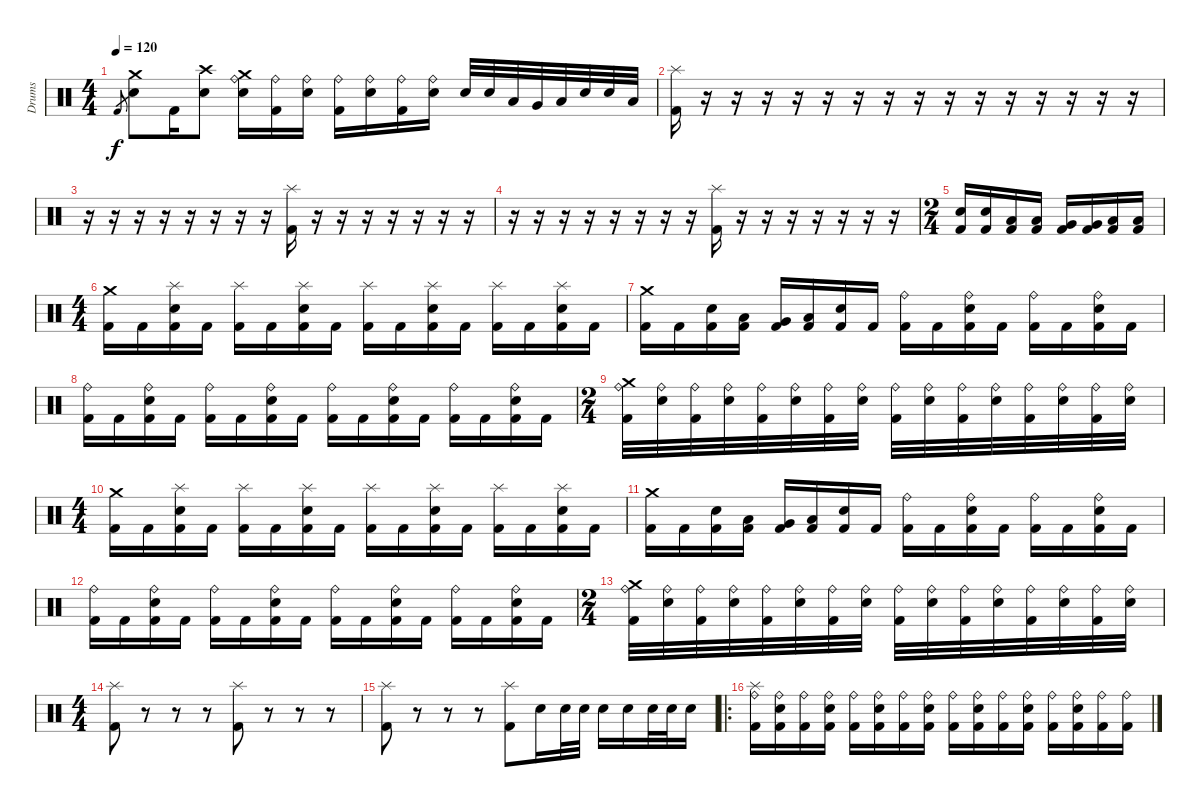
\track ("Drums" "Drums") {instrument percussion}
\staff {score}
\articulation defaults
\ts (4 4)
\tempo 120
\clef neutral
\ks c "Kick (hit) 2".8{gr dy f}
("Electric Snare (hit)" "Crash medium (hit)").8 "Kick (hit) 2".16 ("Electric Snare (hit)" "Crash high (hit)").8 ("Crash medium (hit)" "Electric Snare (hit)" "Ride (bell)").16 ("Kick (hit) 2" "Ride (bell)").16 ("Electric Snare (hit)" "Ride (bell)").16 ("Kick (hit) 2" "Ride (bell)").16 ("Electric Snare (hit)" "Ride (bell)").16 ("Kick (hit) 2" "Ride (bell)").16 ("Electric Snare (hit)" "Ride (bell)").16 "Electric Snare (hit)".32 "Electric Snare (hit)".32 "Low Tom (hit)".32 "Very Low Tom (hit)".32 "Low Tom (hit)".32 "Electric Snare (hit)".32 "Electric Snare (hit)".32 "Low Floor Tom (hit)".32 |
("Splash (hit)" "Kick (hit) 2").16 r.16 r.16 r.16 r.16 r.16 r.16 r.16 r.16 r.16 r.16 r.16 r.16 r.16 r.16 r.16 |
r.16 r.16 r.16 r.16 r.16 r.16 r.16 r.16 ("Kick (hit) 2" "Splash (hit)").16 r.16 r.16 r.16 r.16 r.16 r.16 r.16 |
r.16 r.16 r.16 r.16 r.16 r.16 r.16 r.16 ("Kick (hit) 2" "Splash (hit)").16 r.16 r.16 r.16 r.16 r.16 r.16 r.16 |
\ts (2 4)
("Electric Snare (hit)" "Kick (hit) 2").16 ("Electric Snare (hit)" "Kick (hit) 2").16 ("Low Tom (hit)" "Kick (hit) 2").16 ("Low Tom (hit)" "Kick (hit) 2").16 ("Very Low Tom (hit)" "Kick (hit) 2").16 ("Very Low Tom (hit)" "Kick (hit) 2").16 ("Low Floor Tom (hit)" "Kick (hit) 2").16 ("Low Floor Tom (hit)" "Kick (hit) 2").16 |
\ts (4 4)
("Crash medium (hit)" "Kick (hit) 2").16 "Kick (hit) 2".16 ("Electric Snare (hit)" "Splash (hit)" "Kick (hit) 2").16 "Kick (hit) 2".16 ("Splash (hit)" "Kick (hit) 2").16 "Kick (hit) 2".16 ("Electric Snare (hit)" "Splash (hit)" "Kick (hit) 2").16 "Kick (hit) 2".16 ("Splash (hit)" "Kick (hit) 2").16 "Kick (hit) 2".16 ("Electric Snare (hit)" "Splash (hit)" "Kick (hit) 2").16 "Kick (hit) 2".16 ("Splash (hit)" "Kick (hit) 2").16 "Kick (hit) 2".16 ("Electric Snare (hit)" "Splash (hit)" "Kick (hit) 2").16 "Kick (hit) 2".16 |
("Crash medium (hit)" "Kick (hit) 2").16 "Kick (hit) 2".16 ("Electric Snare (hit)" "Kick (hit) 2").16 ("Low Tom (hit)" "Kick (hit) 2").16 ("Very Low Tom (hit)" "Kick (hit) 2").16 ("Low Floor Tom (hit)" "Kick (hit) 2").16 ("Electric Snare (hit)" "Kick (hit) 2").16 "Kick (hit) 2".16 ("Ride (bell)" "Kick (hit) 2").16 "Kick (hit) 2".16 ("Electric Snare (hit)" "Ride (bell)" "Kick (hit) 2").16 "Kick (hit) 2".16 ("Ride (bell)" "Kick (hit) 2").16 "Kick (hit) 2".16 ("Electric Snare (hit)" "Ride (bell)" "Kick (hit) 2").16 "Kick (hit) 2".16 |
("Ride (bell)" "Kick (hit) 2").16 "Kick (hit) 2".16 ("Electric Snare (hit)" "Ride (bell)" "Kick (hit) 2").16 "Kick (hit) 2".16 ("Ride (bell)" "Kick (hit) 2").16 "Kick (hit) 2".16 ("Electric Snare (hit)" "Ride (bell)" "Kick (hit) 2").16 "Kick (hit) 2".16 ("Ride (bell)" "Kick (hit) 2").16 "Kick (hit) 2".16 ("Electric Snare (hit)" "Ride (bell)" "Kick (hit) 2").16 "Kick (hit) 2".16 ("Ride (bell)" "Kick (hit) 2").16 "Kick (hit) 2".16 ("Electric Snare (hit)" "Ride (bell)" "Kick (hit) 2").16 "Kick (hit) 2".16 |
\ts (2 4)
("Kick (hit) 2" "Ride (bell)" "Crash medium (hit)").32 ("Electric Snare (hit)" "Ride (bell)").32 ("Kick (hit) 2" "Ride (bell)").32 ("Electric Snare (hit)" "Ride (bell)").32 ("Kick (hit) 2" "Ride (bell)").32 ("Electric Snare (hit)" "Ride (bell)").32 ("Kick (hit) 2" "Ride (bell)").32 ("Electric Snare (hit)" "Ride (bell)").32 ("Kick (hit) 2" "Ride (bell)").32 ("Electric Snare (hit)" "Ride (bell)").32 ("Kick (hit) 2" "Ride (bell)").32 ("Electric Snare (hit)" "Ride (bell)").32 ("Kick (hit) 2" "Ride (bell)").32 ("Electric Snare (hit)" "Ride (bell)").32 ("Kick (hit) 2" "Ride (bell)").32 ("Electric Snare (hit)" "Ride (bell)").32 |
\ts (4 4)
("Crash medium (hit)" "Kick (hit) 2").16 "Kick (hit) 2".16 ("Electric Snare (hit)" "Splash (hit)" "Kick (hit) 2").16 "Kick (hit) 2".16 ("Splash (hit)" "Kick (hit) 2").16 "Kick (hit) 2".16 ("Electric Snare (hit)" "Splash (hit)" "Kick (hit) 2").16 "Kick (hit) 2".16 ("Splash (hit)" "Kick (hit) 2").16 "Kick (hit) 2".16 ("Electric Snare (hit)" "Splash (hit)" "Kick (hit) 2").16 "Kick (hit) 2".16 ("Splash (hit)" "Kick (hit) 2").16 "Kick (hit) 2".16 ("Electric Snare (hit)" "Splash (hit)" "Kick (hit) 2").16 "Kick (hit) 2".16 |
("Crash medium (hit)" "Kick (hit) 2").16 "Kick (hit) 2".16 ("Electric Snare (hit)" "Kick (hit) 2").16 ("Low Tom (hit)" "Kick (hit) 2").16 ("Very Low Tom (hit)" "Kick (hit) 2").16 ("Low Floor Tom (hit)" "Kick (hit) 2").16 ("Electric Snare (hit)" "Kick (hit) 2").16 "Kick (hit) 2".16 ("Ride (bell)" "Kick (hit) 2").16 "Kick (hit) 2".16 ("Electric Snare (hit)" "Ride (bell)" "Kick (hit) 2").16 "Kick (hit) 2".16 ("Ride (bell)" "Kick (hit) 2").16 "Kick (hit) 2".16 ("Electric Snare (hit)" "Ride (bell)" "Kick (hit) 2").16 "Kick (hit) 2".16 |
("Ride (bell)" "Kick (hit) 2").16 "Kick (hit) 2".16 ("Electric Snare (hit)" "Ride (bell)" "Kick (hit) 2").16 "Kick (hit) 2".16 ("Ride (bell)" "Kick (hit) 2").16 "Kick (hit) 2".16 ("Electric Snare (hit)" "Ride (bell)" "Kick (hit) 2").16 "Kick (hit) 2".16 ("Ride (bell)" "Kick (hit) 2").16 "Kick (hit) 2".16 ("Electric Snare (hit)" "Ride (bell)" "Kick (hit) 2").16 "Kick (hit) 2".16 ("Ride (bell)" "Kick (hit) 2").16 "Kick (hit) 2".16 ("Electric Snare (hit)" "Ride (bell)" "Kick (hit) 2").16 "Kick (hit) 2".16 |
\ts (2 4)
("Kick (hit) 2" "Ride (bell)" "Crash medium (hit)").32 ("Electric Snare (hit)" "Ride (bell)").32 ("Kick (hit) 2" "Ride (bell)").32 ("Electric Snare (hit)" "Ride (bell)").32 ("Kick (hit) 2" "Ride (bell)").32 ("Electric Snare (hit)" "Ride (bell)").32 ("Kick (hit) 2" "Ride (bell)").32 ("Electric Snare (hit)" "Ride (bell)").32 ("Kick (hit) 2" "Ride (bell)").32 ("Electric Snare (hit)" "Ride (bell)").32 ("Kick (hit) 2" "Ride (bell)").32 ("Electric Snare (hit)" "Ride (bell)").32 ("Kick (hit) 2" "Ride (bell)").32 ("Electric Snare (hit)" "Ride (bell)").32 ("Kick (hit) 2" "Ride (bell)").32 ("Electric Snare (hit)" "Ride (bell)").32 |
\ts (4 4)
("Splash (hit)" "Kick (hit) 2").8 r.8 r.8 r.8 ("Splash (hit)" "Kick (hit) 2").8 r.8 r.8 r.8 |
("Splash (hit)" "Kick (hit) 2").8 r.8 r.8 r.8 ("Splash (hit)" "Kick (hit) 2").8 "Electric Snare (hit)".16 "Electric Snare (hit)".32 "Electric Snare (hit)".32 "Electric Snare (hit)".16 "Electric Snare (hit)".16 "Electric Snare (hit)".32 "Electric Snare (hit)".32 "Electric Snare (hit)".16 |
\ro
("Splash (hit)" "Ride (bell)" "Kick (hit) 2").16 ("Ride (bell)" "Kick (hit) 2" "Electric Snare (hit)").16 ("Ride (bell)" "Kick (hit) 2").16 ("Ride (bell)" "Kick (hit) 2" "Electric Snare (hit)").16 ("Ride (bell)" "Kick (hit) 2").16 ("Ride (bell)" "Kick (hit) 2" "Electric Snare (hit)").16 ("Ride (bell)" "Kick (hit) 2").16 ("Ride (bell)" "Kick (hit) 2" "Electric Snare (hit)").16 ("Ride (bell)" "Kick (hit) 2").16 ("Ride (bell)" "Kick (hit) 2" "Electric Snare (hit)").16 ("Ride (bell)" "Kick (hit) 2").16 ("Ride (bell)" "Kick (hit) 2" "Electric Snare (hit)").16 ("Ride (bell)" "Kick (hit) 2").16 ("Ride (bell)" "Kick (hit) 2" "Electric Snare (hit)").16 ("Ride (bell)" "Kick (hit) 2").16 ("Ride (bell)" "Kick (hit) 2").16
